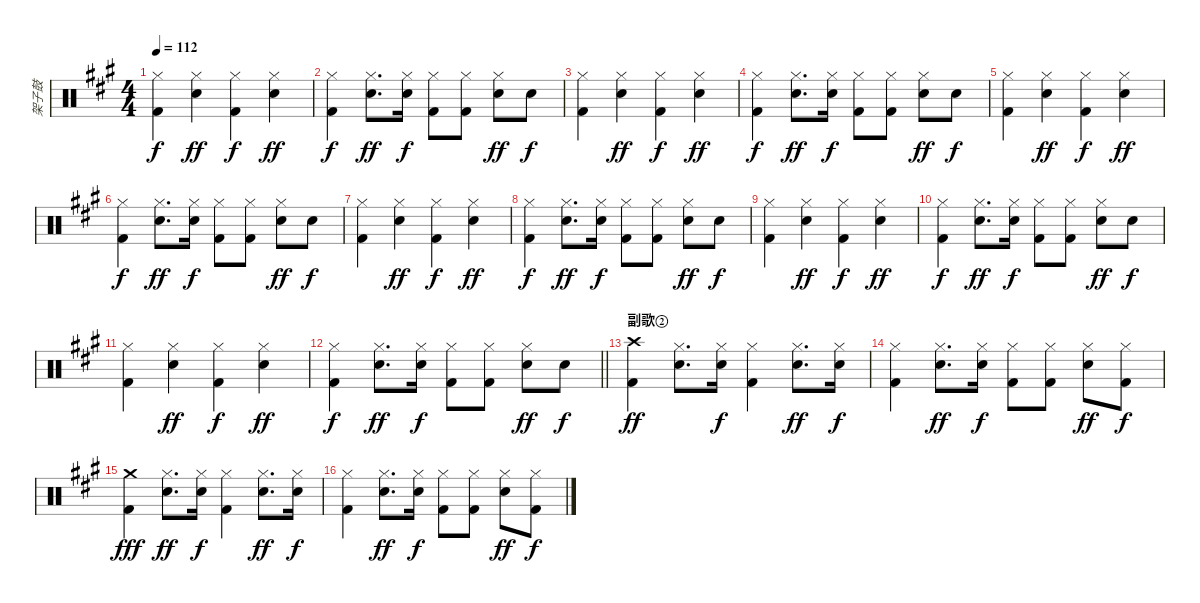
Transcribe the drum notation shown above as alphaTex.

\track ("架子鼓" "架子鼓") {instrument percussion}
\staff {score}
\articulation defaults
\ts (4 4)
\tempo 112
\clef neutral
\ks a
("Hi-Hat (closed)" "Kick (hit) 2").4{dy f} ("Hi-Hat (closed)" "Electric Snare (hit)").4{dy ff} ("Hi-Hat (closed)" "Kick (hit) 2").4{dy f} ("Hi-Hat (closed)" "Electric Snare (hit)").4{dy ff} |
("Hi-Hat (closed)" "Kick (hit) 2").4{dy f} ("Hi-Hat (closed)" "Electric Snare (hit)").8{d dy ff} ("Hi-Hat (closed)" "Electric Snare (hit)").16{dy f} ("Hi-Hat (closed)" "Kick (hit) 2").8 ("Hi-Hat (closed)" "Kick (hit) 2").8 ("Hi-Hat (closed)" "Electric Snare (hit)").8{dy ff} "Electric Snare (hit)".8{dy f} |
("Hi-Hat (closed)" "Kick (hit) 2").4 ("Hi-Hat (closed)" "Electric Snare (hit)").4{dy ff} ("Hi-Hat (closed)" "Kick (hit) 2").4{dy f} ("Hi-Hat (closed)" "Electric Snare (hit)").4{dy ff} |
("Hi-Hat (closed)" "Kick (hit) 2").4{dy f} ("Hi-Hat (closed)" "Electric Snare (hit)").8{d dy ff} ("Hi-Hat (closed)" "Electric Snare (hit)").16{dy f} ("Hi-Hat (closed)" "Kick (hit) 2").8 ("Hi-Hat (closed)" "Kick (hit) 2").8 ("Hi-Hat (closed)" "Electric Snare (hit)").8{dy ff} "Electric Snare (hit)".8{dy f} |
("Hi-Hat (closed)" "Kick (hit) 2").4 ("Hi-Hat (closed)" "Electric Snare (hit)").4{dy ff} ("Hi-Hat (closed)" "Kick (hit) 2").4{dy f} ("Hi-Hat (closed)" "Electric Snare (hit)").4{dy ff} |
("Hi-Hat (closed)" "Kick (hit) 2").4{dy f} ("Hi-Hat (closed)" "Electric Snare (hit)").8{d dy ff} ("Hi-Hat (closed)" "Electric Snare (hit)").16{dy f} ("Hi-Hat (closed)" "Kick (hit) 2").8 ("Hi-Hat (closed)" "Kick (hit) 2").8 ("Hi-Hat (closed)" "Electric Snare (hit)").8{dy ff} "Electric Snare (hit)".8{dy f} |
("Hi-Hat (closed)" "Kick (hit) 2").4 ("Hi-Hat (closed)" "Electric Snare (hit)").4{dy ff} ("Hi-Hat (closed)" "Kick (hit) 2").4{dy f} ("Hi-Hat (closed)" "Electric Snare (hit)").4{dy ff} |
("Hi-Hat (closed)" "Kick (hit) 2").4{dy f} ("Hi-Hat (closed)" "Electric Snare (hit)").8{d dy ff} ("Hi-Hat (closed)" "Electric Snare (hit)").16{dy f} ("Hi-Hat (closed)" "Kick (hit) 2").8 ("Hi-Hat (closed)" "Kick (hit) 2").8 ("Hi-Hat (closed)" "Electric Snare (hit)").8{dy ff} "Electric Snare (hit)".8{dy f} |
("Hi-Hat (closed)" "Kick (hit) 2").4 ("Hi-Hat (closed)" "Electric Snare (hit)").4{dy ff} ("Hi-Hat (closed)" "Kick (hit) 2").4{dy f} ("Hi-Hat (closed)" "Electric Snare (hit)").4{dy ff} |
("Hi-Hat (closed)" "Kick (hit) 2").4{dy f} ("Hi-Hat (closed)" "Electric Snare (hit)").8{d dy ff} ("Hi-Hat (closed)" "Electric Snare (hit)").16{dy f} ("Hi-Hat (closed)" "Kick (hit) 2").8 ("Hi-Hat (closed)" "Kick (hit) 2").8 ("Hi-Hat (closed)" "Electric Snare (hit)").8{dy ff} "Electric Snare (hit)".8{dy f} |
("Hi-Hat (closed)" "Kick (hit) 2").4 ("Hi-Hat (closed)" "Electric Snare (hit)").4{dy ff} ("Hi-Hat (closed)" "Kick (hit) 2").4{dy f} ("Hi-Hat (closed)" "Electric Snare (hit)").4{dy ff} |
\barLineRight lightlight
("Hi-Hat (closed)" "Kick (hit) 2").4{dy f} ("Hi-Hat (closed)" "Electric Snare (hit)").8{d dy ff} ("Hi-Hat (closed)" "Electric Snare (hit)").16{dy f} ("Hi-Hat (closed)" "Kick (hit) 2").8 ("Hi-Hat (closed)" "Kick (hit) 2").8 ("Hi-Hat (closed)" "Electric Snare (hit)").8{dy ff} "Electric Snare (hit)".8{dy f} |
\section ("" "副歌②")
("Crash high (hit)" "Kick (hit) 2").4{dy ff} ("Hi-Hat (closed)" "Electric Snare (hit)").8{d} ("Hi-Hat (closed)" "Electric Snare (hit)").16{dy f} ("Hi-Hat (closed)" "Kick (hit) 2").4 ("Hi-Hat (closed)" "Electric Snare (hit)").8{d dy ff} ("Hi-Hat (closed)" "Electric Snare (hit)").16{dy f} |
("Hi-Hat (closed)" "Kick (hit) 2").4 ("Hi-Hat (closed)" "Electric Snare (hit)").8{d dy ff} ("Hi-Hat (closed)" "Electric Snare (hit)").16{dy f} ("Hi-Hat (closed)" "Kick (hit) 2").8 ("Hi-Hat (closed)" "Kick (hit) 2").8 ("Hi-Hat (closed)" "Electric Snare (hit)").8{dy ff} ("Hi-Hat (closed)" "Kick (hit) 2").8{dy f} |
("Crash medium (hit)" "Kick (hit) 2").4{dy fff} ("Hi-Hat (closed)" "Electric Snare (hit)").8{d dy ff} ("Hi-Hat (closed)" "Electric Snare (hit)").16{dy f} ("Hi-Hat (closed)" "Kick (hit) 2").4 ("Hi-Hat (closed)" "Electric Snare (hit)").8{d dy ff} ("Hi-Hat (closed)" "Electric Snare (hit)").16{dy f} |
("Hi-Hat (closed)" "Kick (hit) 2").4 ("Hi-Hat (closed)" "Electric Snare (hit)").8{d dy ff} ("Hi-Hat (closed)" "Electric Snare (hit)").16{dy f} ("Hi-Hat (closed)" "Kick (hit) 2").8 ("Hi-Hat (closed)" "Kick (hit) 2").8 ("Hi-Hat (closed)" "Electric Snare (hit)").8{dy ff} ("Hi-Hat (closed)" "Kick (hit) 2").8{dy f}
